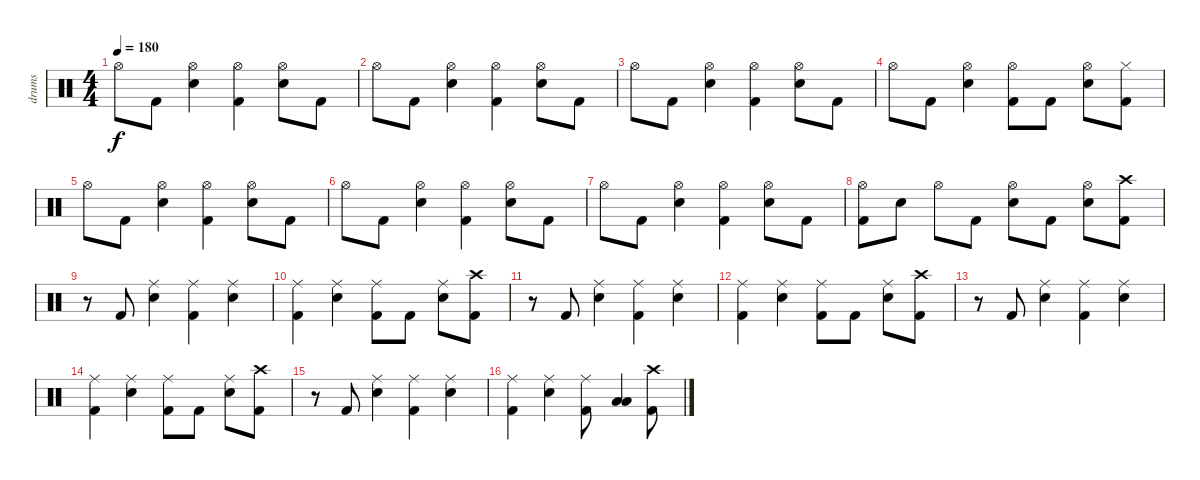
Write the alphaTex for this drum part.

\track ("drums" "drums") {instrument percussion}
\staff {score}
\articulation defaults
\ts (4 4)
\tempo 180
\clef neutral
\ks c "Hi-Hat (open)".8{dy f} "Kick (hit) 2".8
("Hi-Hat (open)" "Electric Snare (hit)").4 ("Hi-Hat (open)" "Kick (hit) 2").4 ("Hi-Hat (open)" "Electric Snare (hit)").8 "Kick (hit) 2".8 |
"Hi-Hat (open)".8 "Kick (hit) 2".8 ("Hi-Hat (open)" "Electric Snare (hit)").4 ("Hi-Hat (open)" "Kick (hit) 2").4 ("Hi-Hat (open)" "Electric Snare (hit)").8 "Kick (hit) 2".8 |
"Hi-Hat (open)".8 "Kick (hit) 2".8 ("Hi-Hat (open)" "Electric Snare (hit)").4 ("Hi-Hat (open)" "Kick (hit) 2").4 ("Hi-Hat (open)" "Electric Snare (hit)").8 "Kick (hit) 2".8 |
"Hi-Hat (open)".8 "Kick (hit) 2".8 ("Hi-Hat (open)" "Electric Snare (hit)").4 ("Hi-Hat (open)" "Kick (hit) 2").8 "Kick (hit) 2".8 ("Hi-Hat (open)" "Electric Snare (hit)").8 ("Hi-Hat (closed)" "Kick (hit) 2").8 |
"Hi-Hat (open)".8 "Kick (hit) 2".8 ("Hi-Hat (open)" "Electric Snare (hit)").4 ("Hi-Hat (open)" "Kick (hit) 2").4 ("Hi-Hat (open)" "Electric Snare (hit)").8 "Kick (hit) 2".8 |
"Hi-Hat (open)".8 "Kick (hit) 2".8 ("Hi-Hat (open)" "Electric Snare (hit)").4 ("Hi-Hat (open)" "Kick (hit) 2").4 ("Hi-Hat (open)" "Electric Snare (hit)").8 "Kick (hit) 2".8 |
"Hi-Hat (open)".8 "Kick (hit) 2".8 ("Hi-Hat (open)" "Electric Snare (hit)").4 ("Hi-Hat (open)" "Kick (hit) 2").4 ("Hi-Hat (open)" "Electric Snare (hit)").8 "Kick (hit) 2".8 |
("Hi-Hat (open)" "Kick (hit) 2").8 "Electric Snare (hit)".8 "Hi-Hat (open)".8 "Kick (hit) 2".8 ("Hi-Hat (open)" "Electric Snare (hit)").8 "Kick (hit) 2".8 ("Hi-Hat (open)" "Electric Snare (hit)").8 ("Crash high (hit)" "Kick (hit) 2").8 |
r.8 "Kick (hit) 2".8 ("Ride (middle)" "Electric Snare (hit)").4 ("Ride (middle)" "Kick (hit) 2").4 ("Ride (middle)" "Electric Snare (hit)").4 |
("Ride (middle)" "Kick (hit) 2").4 ("Ride (middle)" "Electric Snare (hit)").4 ("Ride (middle)" "Kick (hit) 2").8 "Kick (hit) 2".8 ("Ride (middle)" "Electric Snare (hit)").8 ("Crash high (hit)" "Kick (hit) 2").8 |
r.8 "Kick (hit) 2".8 ("Ride (middle)" "Electric Snare (hit)").4 ("Ride (middle)" "Kick (hit) 2").4 ("Ride (middle)" "Electric Snare (hit)").4 |
("Ride (middle)" "Kick (hit) 2").4 ("Ride (middle)" "Electric Snare (hit)").4 ("Ride (middle)" "Kick (hit) 2").8 "Kick (hit) 2".8 ("Ride (middle)" "Electric Snare (hit)").8 ("Crash high (hit)" "Kick (hit) 2").8 |
r.8 "Kick (hit) 2".8 ("Ride (middle)" "Electric Snare (hit)").4 ("Ride (middle)" "Kick (hit) 2").4 ("Ride (middle)" "Electric Snare (hit)").4 |
("Ride (middle)" "Kick (hit) 2").4 ("Ride (middle)" "Electric Snare (hit)").4 ("Ride (middle)" "Kick (hit) 2").8 "Kick (hit) 2".8 ("Ride (middle)" "Electric Snare (hit)").8 ("Crash high (hit)" "Kick (hit) 2").8 |
r.8 "Kick (hit) 2".8 ("Ride (middle)" "Electric Snare (hit)").4 ("Ride (middle)" "Kick (hit) 2").4 ("Ride (middle)" "Electric Snare (hit)").4 |
("Ride (middle)" "Kick (hit) 2").4 ("Ride (middle)" "Electric Snare (hit)").4 ("Ride (middle)" "Kick (hit) 2").8 ("Low Tom (hit)" "Low Floor Tom (hit)").4 ("Crash high (hit)" "Kick (hit) 2").8
